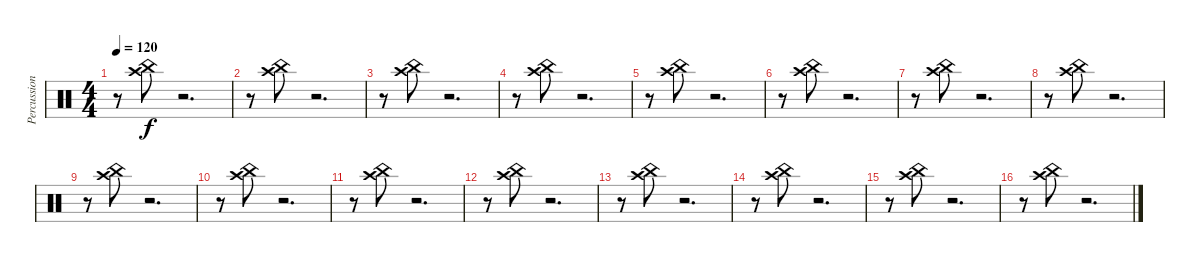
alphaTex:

\track ("Percussion" "Percussion") {instrument percussion}
\staff {score}
\articulation defaults
\ts (4 4)
\tempo 120
\clef neutral
\ks c
r.8{dy f} ("China (hit)" "Crash high (hit)").8 r.2{d} |
r.8 ("China (hit)" "Crash high (hit)").8 r.2{d} |
r.8 ("China (hit)" "Crash high (hit)").8 r.2{d} |
r.8 ("China (hit)" "Crash high (hit)").8 r.2{d} |
r.8 ("China (hit)" "Crash high (hit)").8 r.2{d} |
r.8 ("China (hit)" "Crash high (hit)").8 r.2{d} |
r.8 ("China (hit)" "Crash high (hit)").8 r.2{d} |
r.8 ("China (hit)" "Crash high (hit)").8 r.2{d} |
r.8 ("China (hit)" "Crash high (hit)").8 r.2{d} |
r.8 ("China (hit)" "Crash high (hit)").8 r.2{d} |
r.8 ("China (hit)" "Crash high (hit)").8 r.2{d} |
r.8 ("China (hit)" "Crash high (hit)").8 r.2{d} |
r.8 ("China (hit)" "Crash high (hit)").8 r.2{d} |
r.8 ("China (hit)" "Crash high (hit)").8 r.2{d} |
r.8 ("China (hit)" "Crash high (hit)").8 r.2{d} |
r.8 ("China (hit)" "Crash high (hit)").8 r.2{d}
